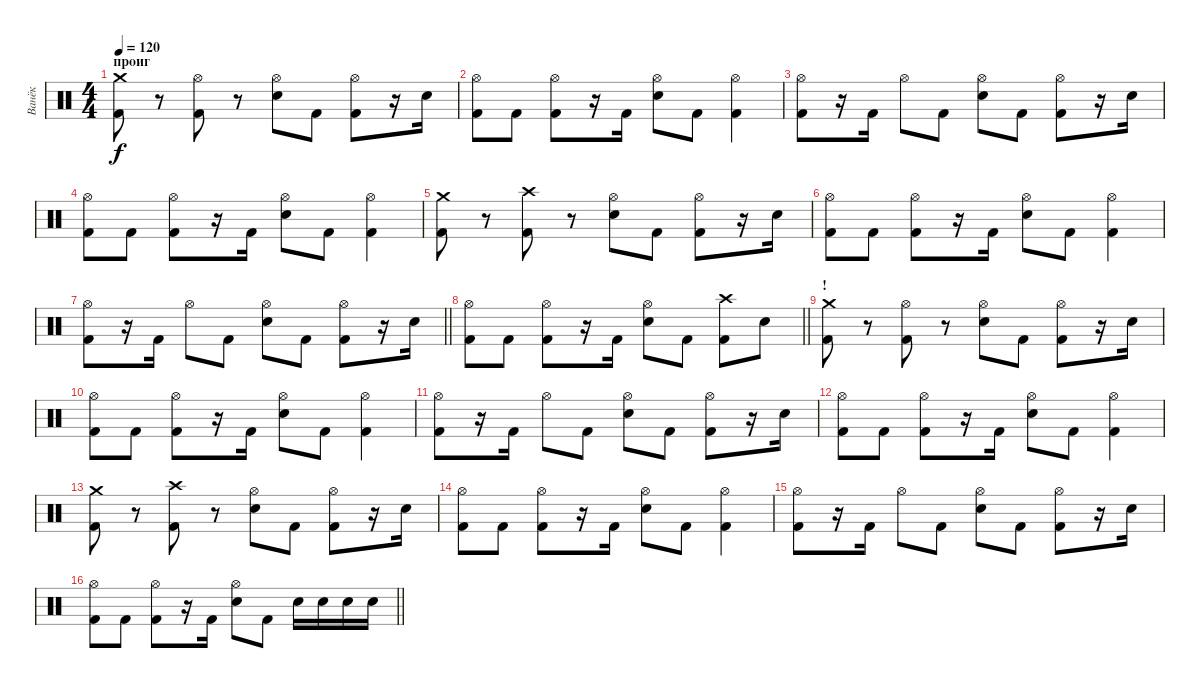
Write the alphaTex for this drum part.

\track ("Ванёк" "Ванёк") {instrument percussion}
\staff {score}
\articulation defaults
\ts (4 4)
\section ("" "проиг")
\tempo 120
\clef neutral
\ks c
("Crash medium (hit)" "Kick (hit) 2").8{dy f} r.8 ("Hi-Hat (open)" "Kick (hit) 2").8 r.8 ("Hi-Hat (open)" "Snare (hit) 2").8 "Kick (hit) 2".8 ("Hi-Hat (open)" "Kick (hit) 2").8 r.16 "Snare (hit) 2".16 |
("Hi-Hat (open)" "Kick (hit) 2").8 "Kick (hit) 2".8 ("Hi-Hat (open)" "Kick (hit) 2").8 r.16 "Kick (hit) 2".16 ("Hi-Hat (open)" "Snare (hit) 2").8 "Kick (hit) 2".8 ("Hi-Hat (open)" "Kick (hit) 2").4 |
("Hi-Hat (open)" "Kick (hit) 2").8 r.16 "Kick (hit) 2".16 "Hi-Hat (open)".8 "Kick (hit) 2".8 ("Hi-Hat (open)" "Snare (hit) 2").8 "Kick (hit) 2".8 ("Hi-Hat (open)" "Kick (hit) 2").8 r.16 "Snare (hit) 2".16 |
("Hi-Hat (open)" "Kick (hit) 2").8 "Kick (hit) 2".8 ("Hi-Hat (open)" "Kick (hit) 2").8 r.16 "Kick (hit) 2".16 ("Hi-Hat (open)" "Snare (hit) 2").8 "Kick (hit) 2".8 ("Hi-Hat (open)" "Kick (hit) 2").4 |
("Crash medium (hit)" "Kick (hit) 2").8 r.8 ("Crash high (hit)" "Kick (hit) 2").8 r.8 ("Hi-Hat (open)" "Snare (hit) 2").8 "Kick (hit) 2".8 ("Hi-Hat (open)" "Kick (hit) 2").8 r.16 "Snare (hit) 2".16 |
("Hi-Hat (open)" "Kick (hit) 2").8 "Kick (hit) 2".8 ("Hi-Hat (open)" "Kick (hit) 2").8 r.16 "Kick (hit) 2".16 ("Hi-Hat (open)" "Snare (hit) 2").8 "Kick (hit) 2".8 ("Hi-Hat (open)" "Kick (hit) 2").4 |
\barLineRight lightlight
("Hi-Hat (open)" "Kick (hit) 2").8 r.16 "Kick (hit) 2".16 "Hi-Hat (open)".8 "Kick (hit) 2".8 ("Hi-Hat (open)" "Snare (hit) 2").8 "Kick (hit) 2".8 ("Hi-Hat (open)" "Kick (hit) 2").8 r.16 "Snare (hit) 2".16 |
\section ("" "")
\barLineRight lightlight
("Hi-Hat (open)" "Kick (hit) 2").8 "Kick (hit) 2".8 ("Hi-Hat (open)" "Kick (hit) 2").8 r.16 "Kick (hit) 2".16 ("Hi-Hat (open)" "Snare (hit) 2").8 "Kick (hit) 2".8 ("Crash high (hit)" "Kick (hit) 2").8 "Snare (hit) 2".8 |
\section ("" "!")
("Crash medium (hit)" "Kick (hit) 2").8 r.8 ("Hi-Hat (open)" "Kick (hit) 2").8 r.8 ("Hi-Hat (open)" "Snare (hit) 2").8 "Kick (hit) 2".8 ("Hi-Hat (open)" "Kick (hit) 2").8 r.16 "Snare (hit) 2".16 |
("Hi-Hat (open)" "Kick (hit) 2").8 "Kick (hit) 2".8 ("Hi-Hat (open)" "Kick (hit) 2").8 r.16 "Kick (hit) 2".16 ("Hi-Hat (open)" "Snare (hit) 2").8 "Kick (hit) 2".8 ("Hi-Hat (open)" "Kick (hit) 2").4 |
("Hi-Hat (open)" "Kick (hit) 2").8 r.16 "Kick (hit) 2".16 "Hi-Hat (open)".8 "Kick (hit) 2".8 ("Hi-Hat (open)" "Snare (hit) 2").8 "Kick (hit) 2".8 ("Hi-Hat (open)" "Kick (hit) 2").8 r.16 "Snare (hit) 2".16 |
("Hi-Hat (open)" "Kick (hit) 2").8 "Kick (hit) 2".8 ("Hi-Hat (open)" "Kick (hit) 2").8 r.16 "Kick (hit) 2".16 ("Hi-Hat (open)" "Snare (hit) 2").8 "Kick (hit) 2".8 ("Hi-Hat (open)" "Kick (hit) 2").4 |
("Crash medium (hit)" "Kick (hit) 2").8 r.8 ("Crash high (hit)" "Kick (hit) 2").8 r.8 ("Hi-Hat (open)" "Snare (hit) 2").8 "Kick (hit) 2".8 ("Hi-Hat (open)" "Kick (hit) 2").8 r.16 "Snare (hit) 2".16 |
("Hi-Hat (open)" "Kick (hit) 2").8 "Kick (hit) 2".8 ("Hi-Hat (open)" "Kick (hit) 2").8 r.16 "Kick (hit) 2".16 ("Hi-Hat (open)" "Snare (hit) 2").8 "Kick (hit) 2".8 ("Hi-Hat (open)" "Kick (hit) 2").4 |
("Hi-Hat (open)" "Kick (hit) 2").8 r.16 "Kick (hit) 2".16 "Hi-Hat (open)".8 "Kick (hit) 2".8 ("Hi-Hat (open)" "Snare (hit) 2").8 "Kick (hit) 2".8 ("Hi-Hat (open)" "Kick (hit) 2").8 r.16 "Snare (hit) 2".16 |
\barLineRight lightlight
("Hi-Hat (open)" "Kick (hit) 2").8 "Kick (hit) 2".8 ("Hi-Hat (open)" "Kick (hit) 2").8 r.16 "Kick (hit) 2".16 ("Hi-Hat (open)" "Snare (hit) 2").8 "Kick (hit) 2".8 "Snare (hit) 2".16 "Snare (hit) 2".16 "Snare (hit) 2".16 "Snare (hit) 2".16
